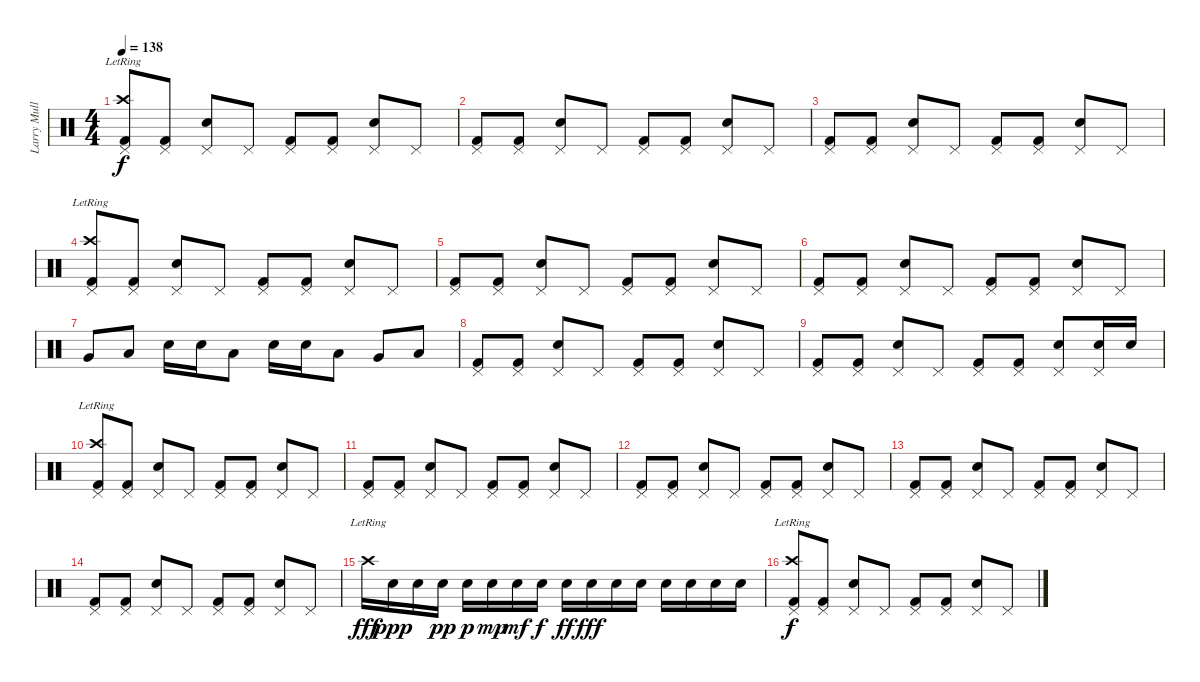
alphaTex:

\track ("Larry Mullen" "Larry Mull") {instrument percussion}
\staff {score}
\articulation defaults
\ts (4 4)
\tempo 138
\clef neutral
\ks c
("Kick (hit) 2" "Crash high (hit)"{lr} "Pedal Hi-Hat (hit)").8{dy f} ("Kick (hit) 2" "Pedal Hi-Hat (hit)").8 ("Snare (hit) 2" "Pedal Hi-Hat (hit)").8 "Pedal Hi-Hat (hit)".8 ("Kick (hit) 2" "Pedal Hi-Hat (hit)").8 ("Kick (hit) 2" "Pedal Hi-Hat (hit)").8 ("Snare (hit) 2" "Pedal Hi-Hat (hit)").8 "Pedal Hi-Hat (hit)".8 |
("Kick (hit) 2" "Pedal Hi-Hat (hit)").8 ("Kick (hit) 2" "Pedal Hi-Hat (hit)").8 ("Snare (hit) 2" "Pedal Hi-Hat (hit)").8 "Pedal Hi-Hat (hit)".8 ("Kick (hit) 2" "Pedal Hi-Hat (hit)").8 ("Kick (hit) 2" "Pedal Hi-Hat (hit)").8 ("Snare (hit) 2" "Pedal Hi-Hat (hit)").8 "Pedal Hi-Hat (hit)".8 |
("Kick (hit) 2" "Pedal Hi-Hat (hit)").8 ("Kick (hit) 2" "Pedal Hi-Hat (hit)").8 ("Snare (hit) 2" "Pedal Hi-Hat (hit)").8 "Pedal Hi-Hat (hit)".8 ("Kick (hit) 2" "Pedal Hi-Hat (hit)").8 ("Kick (hit) 2" "Pedal Hi-Hat (hit)").8 ("Snare (hit) 2" "Pedal Hi-Hat (hit)").8 "Pedal Hi-Hat (hit)".8 |
("Kick (hit) 2" "Crash high (hit)"{lr} "Pedal Hi-Hat (hit)").8 ("Kick (hit) 2" "Pedal Hi-Hat (hit)").8 ("Snare (hit) 2" "Pedal Hi-Hat (hit)").8 "Pedal Hi-Hat (hit)".8 ("Kick (hit) 2" "Pedal Hi-Hat (hit)").8 ("Kick (hit) 2" "Pedal Hi-Hat (hit)").8 ("Snare (hit) 2" "Pedal Hi-Hat (hit)").8 "Pedal Hi-Hat (hit)".8 |
("Kick (hit) 2" "Pedal Hi-Hat (hit)").8 ("Kick (hit) 2" "Pedal Hi-Hat (hit)").8 ("Snare (hit) 2" "Pedal Hi-Hat (hit)").8 "Pedal Hi-Hat (hit)".8 ("Kick (hit) 2" "Pedal Hi-Hat (hit)").8 ("Kick (hit) 2" "Pedal Hi-Hat (hit)").8 ("Snare (hit) 2" "Pedal Hi-Hat (hit)").8 "Pedal Hi-Hat (hit)".8 |
("Kick (hit) 2" "Pedal Hi-Hat (hit)").8 ("Kick (hit) 2" "Pedal Hi-Hat (hit)").8 ("Snare (hit) 2" "Pedal Hi-Hat (hit)").8 "Pedal Hi-Hat (hit)".8 ("Kick (hit) 2" "Pedal Hi-Hat (hit)").8 ("Kick (hit) 2" "Pedal Hi-Hat (hit)").8 ("Snare (hit) 2" "Pedal Hi-Hat (hit)").8 "Pedal Hi-Hat (hit)".8 |
"Very Low Tom (hit)".8 "Low Floor Tom (hit)".8 "Snare (hit) 2".16 "Snare (hit) 2".16 "Low Floor Tom (hit)".8 "Snare (hit) 2".16 "Snare (hit) 2".16 "Low Tom (hit)".8 "Very Low Tom (hit)".8 "Low Floor Tom (hit)".8 |
("Kick (hit) 2" "Pedal Hi-Hat (hit)").8 ("Kick (hit) 2" "Pedal Hi-Hat (hit)").8 ("Snare (hit) 2" "Pedal Hi-Hat (hit)").8 "Pedal Hi-Hat (hit)".8 ("Kick (hit) 2" "Pedal Hi-Hat (hit)").8 ("Kick (hit) 2" "Pedal Hi-Hat (hit)").8 ("Snare (hit) 2" "Pedal Hi-Hat (hit)").8 "Pedal Hi-Hat (hit)".8 |
("Kick (hit) 2" "Pedal Hi-Hat (hit)").8 ("Kick (hit) 2" "Pedal Hi-Hat (hit)").8 ("Snare (hit) 2" "Pedal Hi-Hat (hit)").8 "Pedal Hi-Hat (hit)".8 ("Kick (hit) 2" "Pedal Hi-Hat (hit)").8 ("Kick (hit) 2" "Pedal Hi-Hat (hit)").8 ("Snare (hit) 2" "Pedal Hi-Hat (hit)").8 ("Snare (hit) 2" "Pedal Hi-Hat (hit)").16 "Snare (hit) 2".16 |
("Kick (hit) 2" "Crash high (hit)"{lr} "Pedal Hi-Hat (hit)").8 ("Kick (hit) 2" "Pedal Hi-Hat (hit)").8 ("Snare (hit) 2" "Pedal Hi-Hat (hit)").8 "Pedal Hi-Hat (hit)".8 ("Kick (hit) 2" "Pedal Hi-Hat (hit)").8 ("Kick (hit) 2" "Pedal Hi-Hat (hit)").8 ("Snare (hit) 2" "Pedal Hi-Hat (hit)").8 "Pedal Hi-Hat (hit)".8 |
("Kick (hit) 2" "Pedal Hi-Hat (hit)").8 ("Kick (hit) 2" "Pedal Hi-Hat (hit)").8 ("Snare (hit) 2" "Pedal Hi-Hat (hit)").8 "Pedal Hi-Hat (hit)".8 ("Kick (hit) 2" "Pedal Hi-Hat (hit)").8 ("Kick (hit) 2" "Pedal Hi-Hat (hit)").8 ("Snare (hit) 2" "Pedal Hi-Hat (hit)").8 "Pedal Hi-Hat (hit)".8 |
("Kick (hit) 2" "Pedal Hi-Hat (hit)").8 ("Kick (hit) 2" "Pedal Hi-Hat (hit)").8 ("Snare (hit) 2" "Pedal Hi-Hat (hit)").8 "Pedal Hi-Hat (hit)".8 ("Kick (hit) 2" "Pedal Hi-Hat (hit)").8 ("Kick (hit) 2" "Pedal Hi-Hat (hit)").8 ("Snare (hit) 2" "Pedal Hi-Hat (hit)").8 "Pedal Hi-Hat (hit)".8 |
("Kick (hit) 2" "Pedal Hi-Hat (hit)").8 ("Kick (hit) 2" "Pedal Hi-Hat (hit)").8 ("Snare (hit) 2" "Pedal Hi-Hat (hit)").8 "Pedal Hi-Hat (hit)".8 ("Kick (hit) 2" "Pedal Hi-Hat (hit)").8 ("Kick (hit) 2" "Pedal Hi-Hat (hit)").8 ("Snare (hit) 2" "Pedal Hi-Hat (hit)").8 "Pedal Hi-Hat (hit)".8 |
("Kick (hit) 2" "Pedal Hi-Hat (hit)").8 ("Kick (hit) 2" "Pedal Hi-Hat (hit)").8 ("Snare (hit) 2" "Pedal Hi-Hat (hit)").8 "Pedal Hi-Hat (hit)".8 ("Kick (hit) 2" "Pedal Hi-Hat (hit)").8 ("Kick (hit) 2" "Pedal Hi-Hat (hit)").8 ("Snare (hit) 2" "Pedal Hi-Hat (hit)").8 "Pedal Hi-Hat (hit)".8 |
"Crash high (hit)"{lr}.16{dy fff} "Snare (hit) 2".16{dy ppp} "Snare (hit) 2".16 "Snare (hit) 2".16{dy pp} "Snare (hit) 2".16{dy p} "Snare (hit) 2".16{dy mp} "Snare (hit) 2".16{dy mf} "Snare (hit) 2".16{dy f} "Snare (hit) 2".16{dy ff} "Snare (hit) 2".16{dy fff} "Snare (hit) 2".16 "Snare (hit) 2".16 "Snare (hit) 2".16 "Snare (hit) 2".16 "Snare (hit) 2".16 "Snare (hit) 2".16 |
("Kick (hit) 2" "Crash high (hit)"{lr} "Pedal Hi-Hat (hit)").8{dy f} ("Kick (hit) 2" "Pedal Hi-Hat (hit)").8 ("Snare (hit) 2" "Pedal Hi-Hat (hit)").8 "Pedal Hi-Hat (hit)".8 ("Kick (hit) 2" "Pedal Hi-Hat (hit)").8 ("Kick (hit) 2" "Pedal Hi-Hat (hit)").8 ("Snare (hit) 2" "Pedal Hi-Hat (hit)").8 "Pedal Hi-Hat (hit)".8
